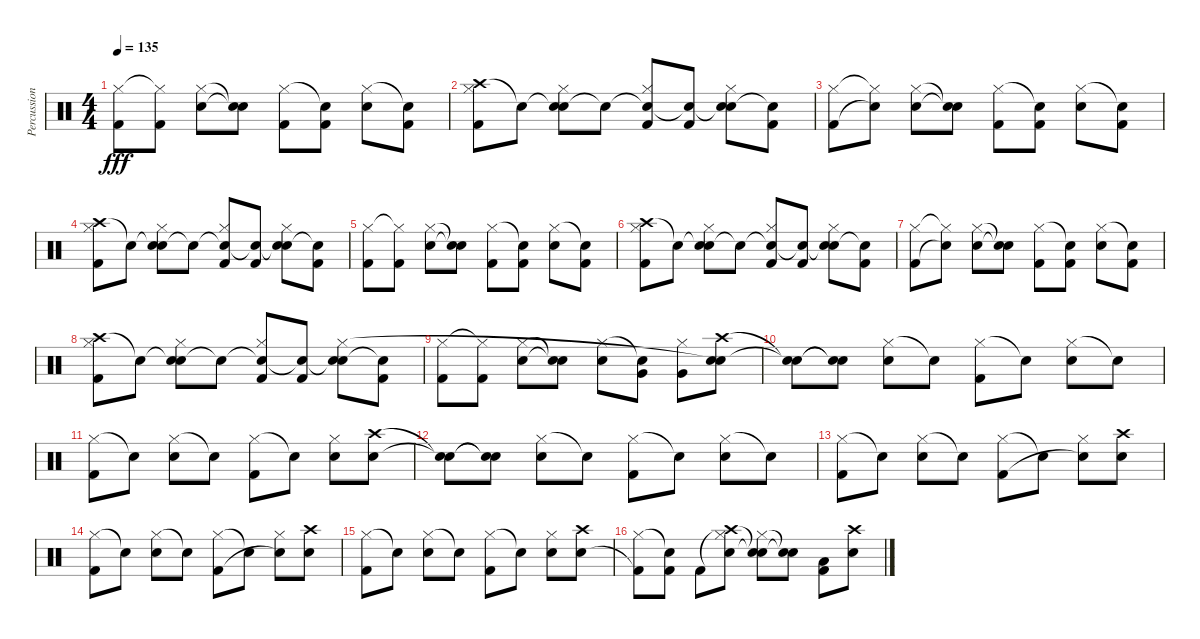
\track ("Percussion" "Percussion") {instrument percussion}
\staff {score}
\articulation defaults
\ts (4 4)
\tempo 135
\clef neutral
\ks c
("Kick (hit) 2" "Hi-Hat (closed)").8{dy fff} ("Kick (hit) 2" "Hi-Hat (closed)"{t}).8 ("Electric Snare (hit)" "Hi-Hat (closed)").8 ("Snare (hit)"{t} "Snare (hit)"{t}).8 ("Kick (hit) 2" "Hi-Hat (closed)").8 ("Kick (hit) 2" "Snare (hit)"{t}).8 ("Electric Snare (hit)" "Hi-Hat (closed)").8 ("Kick (hit) 2" "Snare (hit)"{t}).8 |
("Crash high (hit)" "Kick (hit) 2" "Hi-Hat (closed)").8 "Snare (hit)"{t}.8 ("Snare (hit)"{t} "Electric Snare (hit)" "Hi-Hat (closed)").8 "Snare (hit)"{t}.8 ("Snare (hit)"{t} "Kick (hit) 2" "Hi-Hat (closed)").8 ("Snare (hit)"{t} "Kick (hit) 2").8 ("Snare (hit)"{t} "Electric Snare (hit)" "Hi-Hat (closed)").8 ("Snare (hit)"{t} "Kick (hit) 2").8 |
("Kick (hit) 2" "Hi-Hat (closed)").8 ("Snare (hit)"{t} "Hi-Hat (closed)"{t}).8 ("Electric Snare (hit)" "Hi-Hat (closed)").8 ("Snare (hit)"{t} "Snare (hit)"{t}).8 ("Kick (hit) 2" "Hi-Hat (closed)").8 ("Kick (hit) 2" "Snare (hit)"{t}).8 ("Electric Snare (hit)" "Hi-Hat (closed)").8 ("Kick (hit) 2" "Snare (hit)"{t}).8 |
("Crash high (hit)" "Kick (hit) 2" "Hi-Hat (closed)").8 "Snare (hit)"{t}.8 ("Snare (hit)"{t} "Electric Snare (hit)" "Hi-Hat (closed)").8 "Snare (hit)"{t}.8 ("Snare (hit)"{t} "Kick (hit) 2" "Hi-Hat (closed)").8 ("Snare (hit)"{t} "Kick (hit) 2").8 ("Snare (hit)"{t} "Electric Snare (hit)" "Hi-Hat (closed)").8 ("Snare (hit)"{t} "Kick (hit) 2").8 |
("Kick (hit) 2" "Hi-Hat (closed)").8 ("Kick (hit) 2" "Hi-Hat (closed)"{t}).8 ("Electric Snare (hit)" "Hi-Hat (closed)").8 ("Snare (hit)"{t} "Snare (hit)"{t}).8 ("Kick (hit) 2" "Hi-Hat (closed)").8 ("Kick (hit) 2" "Snare (hit)"{t}).8 ("Electric Snare (hit)" "Hi-Hat (closed)").8 ("Kick (hit) 2" "Snare (hit)"{t}).8 |
("Crash high (hit)" "Kick (hit) 2" "Hi-Hat (closed)").8 "Snare (hit)"{t}.8 ("Snare (hit)"{t} "Electric Snare (hit)" "Hi-Hat (closed)").8 "Snare (hit)"{t}.8 ("Snare (hit)"{t} "Kick (hit) 2" "Hi-Hat (closed)").8 ("Snare (hit)"{t} "Kick (hit) 2").8 ("Snare (hit)"{t} "Electric Snare (hit)" "Hi-Hat (closed)").8 ("Snare (hit)"{t} "Kick (hit) 2").8 |
("Kick (hit) 2" "Hi-Hat (closed)").8 ("Snare (hit)"{t} "Hi-Hat (closed)"{t}).8 ("Electric Snare (hit)" "Hi-Hat (closed)").8 ("Snare (hit)"{t} "Snare (hit)"{t}).8 ("Kick (hit) 2" "Hi-Hat (closed)").8 ("Kick (hit) 2" "Snare (hit)"{t}).8 ("Electric Snare (hit)" "Hi-Hat (closed)").8 ("Kick (hit) 2" "Snare (hit)"{t}).8 |
("Crash high (hit)" "Kick (hit) 2" "Hi-Hat (closed)").8 "Snare (hit)"{t}.8 ("Snare (hit)"{t} "Electric Snare (hit)" "Hi-Hat (closed)").8 "Snare (hit)"{t}.8 ("Snare (hit)"{t} "Kick (hit) 2" "Hi-Hat (closed)").8 ("Snare (hit)"{t} "Kick (hit) 2").8 ("Snare (hit)"{t} "Electric Snare (hit)" "Hi-Hat (closed)").8 ("Snare (hit)"{t} "Kick (hit) 2").8 |
("Kick (hit) 2" "Hi-Hat (closed)").8 ("Kick (hit) 2" "Hi-Hat (closed)"{t}).8 ("Electric Snare (hit)" "Hi-Hat (closed)").8 ("Snare (hit)"{t} "Snare (hit)"{t}).8 ("Electric Snare (hit)" "Hi-Hat (closed)").8 ("Very Low Tom (hit)" "Snare (hit)"{t}).8 ("Very Low Tom (hit)" "Hi-Hat (closed)").8 ("Crash high (hit)" "Electric Snare (hit)" "Snare (hit)"{t}).8 |
("Snare (hit)"{t} "Snare (hit)"{t}).8 ("Snare (hit)"{t} "Snare (hit)"{t}).8 ("Hi-Hat (closed)" "Electric Snare (hit)").8 "Snare (hit)"{t}.8 ("Hi-Hat (closed)" "Kick (hit) 2").8 "Snare (hit)"{t}.8 ("Hi-Hat (closed)" "Electric Snare (hit)").8 "Snare (hit)"{t}.8 |
("Hi-Hat (closed)" "Kick (hit) 2").8 "Snare (hit)"{t}.8 ("Hi-Hat (closed)" "Electric Snare (hit)").8 "Snare (hit)"{t}.8 ("Hi-Hat (closed)" "Kick (hit) 2").8 "Snare (hit)"{t}.8 ("Hi-Hat (closed)" "Electric Snare (hit)").8 ("Crash high (hit)" "Electric Snare (hit)").8 |
("Snare (hit)"{t} "Snare (hit)"{t}).8 ("Snare (hit)"{t} "Snare (hit)"{t}).8 ("Hi-Hat (closed)" "Electric Snare (hit)").8 "Snare (hit)"{t}.8 ("Hi-Hat (closed)" "Kick (hit) 2").8 "Snare (hit)"{t}.8 ("Hi-Hat (closed)" "Electric Snare (hit)").8 "Snare (hit)"{t}.8 |
("Hi-Hat (closed)" "Kick (hit) 2").8 "Snare (hit)"{t}.8 ("Hi-Hat (closed)" "Electric Snare (hit)").8 "Snare (hit)"{t}.8 ("Hi-Hat (closed)" "Kick (hit) 2").8 "Snare (hit)"{t}.8 ("Hi-Hat (closed)" "Electric Snare (hit)"{t}).8 ("Crash high (hit)" "Electric Snare (hit)").8 |
("Hi-Hat (closed)" "Kick (hit) 2").8 "Snare (hit)"{t}.8 ("Hi-Hat (closed)" "Electric Snare (hit)").8 "Snare (hit)"{t}.8 ("Hi-Hat (closed)" "Kick (hit) 2").8 "Snare (hit)"{t}.8 ("Hi-Hat (closed)" "Electric Snare (hit)"{t}).8 ("Crash high (hit)" "Electric Snare (hit)").8 |
("Hi-Hat (closed)" "Kick (hit) 2").8 "Snare (hit)"{t}.8 ("Hi-Hat (closed)" "Electric Snare (hit)").8 "Snare (hit)"{t}.8 ("Hi-Hat (closed)" "Kick (hit) 2").8 "Snare (hit)"{t}.8 ("Hi-Hat (closed)" "Electric Snare (hit)").8 ("Crash high (hit)" "Electric Snare (hit)").8 |
("Hi-Hat (closed)" "Kick (hit) 2"{t}).8 ("Snare (hit)"{t} "Kick (hit) 2").8 "Kick (hit) 2".8 ("Hi-Hat (closed)"{t} "Crash high (hit)" "Electric Snare (hit)").8 ("Hi-Hat (closed)" "Snare (hit)"{t} "Snare (hit)"{t}).8 ("Snare (hit)"{t} "Snare (hit)"{t}).8 ("Kick (hit) 2" "Low Floor Tom (hit)").8 ("Crash high (hit)" "Electric Snare (hit)").8
